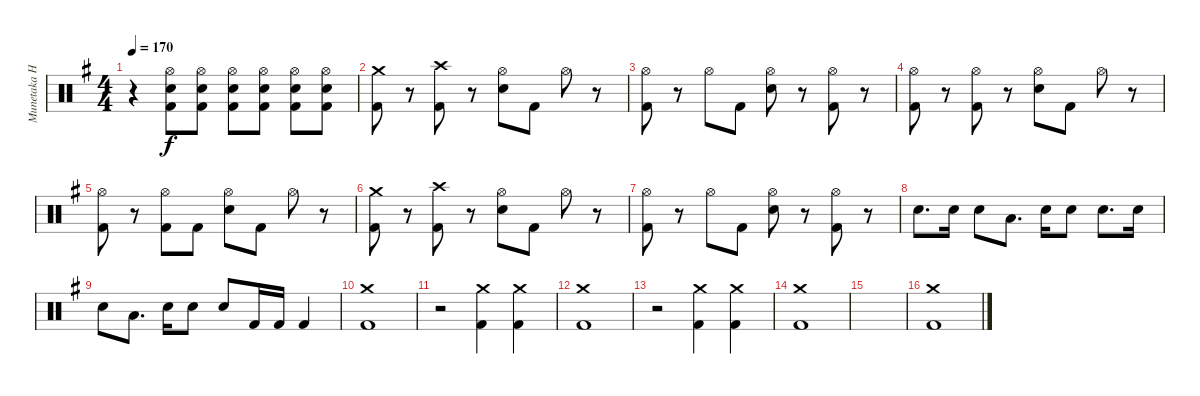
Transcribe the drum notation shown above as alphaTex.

\track ("Munetaka Higuchi" "Munetaka H") {instrument percussion}
\staff {score}
\articulation defaults
\ts (4 4)
\tempo 170
\clef neutral
\ks eminor
r.4{dy f} ("Hi-Hat (open)" "Electric Snare (hit)" "Kick (hit) 2").8 ("Hi-Hat (open)" "Electric Snare (hit)" "Kick (hit) 2").8 ("Hi-Hat (open)" "Electric Snare (hit)" "Kick (hit) 2").8 ("Hi-Hat (open)" "Electric Snare (hit)" "Kick (hit) 2").8 ("Hi-Hat (open)" "Electric Snare (hit)" "Kick (hit) 2").8 ("Hi-Hat (open)" "Electric Snare (hit)" "Kick (hit) 2").8 |
("Crash medium (hit)" "Kick (hit) 2").8 r.8 ("Crash high (hit)" "Kick (hit) 2").8 r.8 ("Hi-Hat (open)" "Electric Snare (hit)").8 "Kick (hit) 2".8 "Hi-Hat (open)".8 r.8 |
("Hi-Hat (open)" "Kick (hit) 2").8 r.8 "Hi-Hat (open)".8 "Kick (hit) 2".8 ("Hi-Hat (open)" "Electric Snare (hit)").8 r.8 ("Hi-Hat (open)" "Kick (hit) 2").8 r.8 |
("Hi-Hat (open)" "Kick (hit) 2").8 r.8 ("Hi-Hat (open)" "Kick (hit) 2").8 r.8 ("Hi-Hat (open)" "Electric Snare (hit)").8 "Kick (hit) 2".8 "Hi-Hat (open)".8 r.8 |
("Hi-Hat (open)" "Kick (hit) 2").8 r.8 ("Hi-Hat (open)" "Kick (hit) 2").8 "Kick (hit) 2".8 ("Hi-Hat (open)" "Electric Snare (hit)").8 "Kick (hit) 2".8 "Hi-Hat (open)".8 r.8 |
("Crash medium (hit)" "Kick (hit) 2").8 r.8 ("Crash high (hit)" "Kick (hit) 2").8 r.8 ("Hi-Hat (open)" "Electric Snare (hit)").8 "Kick (hit) 2".8 "Hi-Hat (open)".8 r.8 |
("Hi-Hat (open)" "Kick (hit) 2").8 r.8 "Hi-Hat (open)".8 "Kick (hit) 2".8 ("Hi-Hat (open)" "Electric Snare (hit)").8 r.8 ("Hi-Hat (open)" "Kick (hit) 2").8 r.8 |
"Electric Snare (hit)".8{d} "Electric Snare (hit)".16 "Electric Snare (hit)".8 "Low Tom (hit)".8{d} "Electric Snare (hit)".16 "Electric Snare (hit)".8 "Electric Snare (hit)".8{d} "Electric Snare (hit)".16 |
"Electric Snare (hit)".8 "Low Tom (hit)".8{d} "Electric Snare (hit)".16 "Electric Snare (hit)".8 "Electric Snare (hit)".8 "Kick (hit) 2".16 "Kick (hit) 2".16 "Kick (hit) 2".4 |
("Crash medium (hit)" "Kick (hit) 2").1 |
r.2 ("Crash medium (hit)" "Kick (hit) 2").4 ("Crash medium (hit)" "Kick (hit) 2").4 |
("Crash medium (hit)" "Kick (hit) 2").1 |
r.2 ("Crash medium (hit)" "Kick (hit) 2").4 ("Crash medium (hit)" "Kick (hit) 2").4 |
("Crash medium (hit)" "Kick (hit) 2").1 |
|
("Crash medium (hit)" "Kick (hit) 2").1
